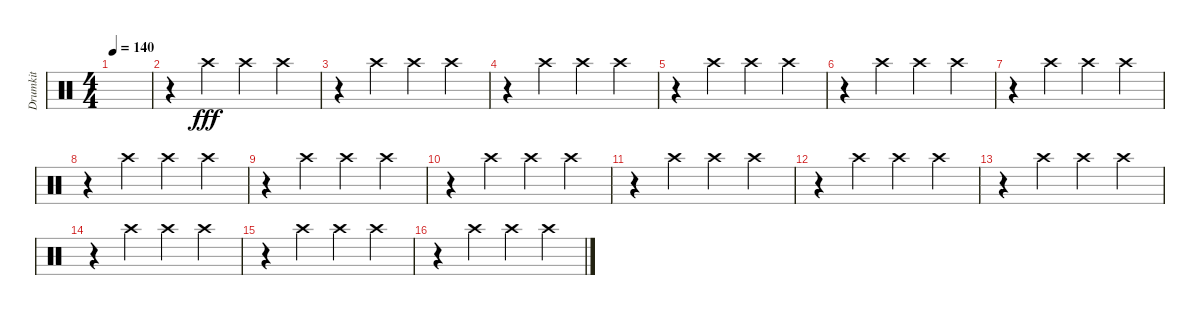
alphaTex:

\track ("Drumkit" "Drumkit") {instrument percussion}
\staff {score}
\articulation defaults
\ts (4 4)
\tempo 140
\clef neutral
\ks c
|
r.4 "Crash high (hit)".4{dy fff} "Crash high (hit)".4 "Crash high (hit)".4 |
r.4 "Crash high (hit)".4 "Crash high (hit)".4 "Crash high (hit)".4 |
r.4 "Crash high (hit)".4 "Crash high (hit)".4 "Crash high (hit)".4 |
r.4 "Crash high (hit)".4 "Crash high (hit)".4 "Crash high (hit)".4 |
r.4 "Crash high (hit)".4 "Crash high (hit)".4 "Crash high (hit)".4 |
r.4 "Crash high (hit)".4 "Crash high (hit)".4 "Crash high (hit)".4 |
r.4 "Crash high (hit)".4 "Crash high (hit)".4 "Crash high (hit)".4 |
r.4 "Crash high (hit)".4 "Crash high (hit)".4 "Crash high (hit)".4 |
r.4 "Crash high (hit)".4 "Crash high (hit)".4 "Crash high (hit)".4 |
r.4 "Crash high (hit)".4 "Crash high (hit)".4 "Crash high (hit)".4 |
r.4 "Crash high (hit)".4 "Crash high (hit)".4 "Crash high (hit)".4 |
r.4 "Crash high (hit)".4 "Crash high (hit)".4 "Crash high (hit)".4 |
r.4 "Crash high (hit)".4 "Crash high (hit)".4 "Crash high (hit)".4 |
r.4 "Crash high (hit)".4 "Crash high (hit)".4 "Crash high (hit)".4 |
r.4 "Crash high (hit)".4 "Crash high (hit)".4 "Crash high (hit)".4
